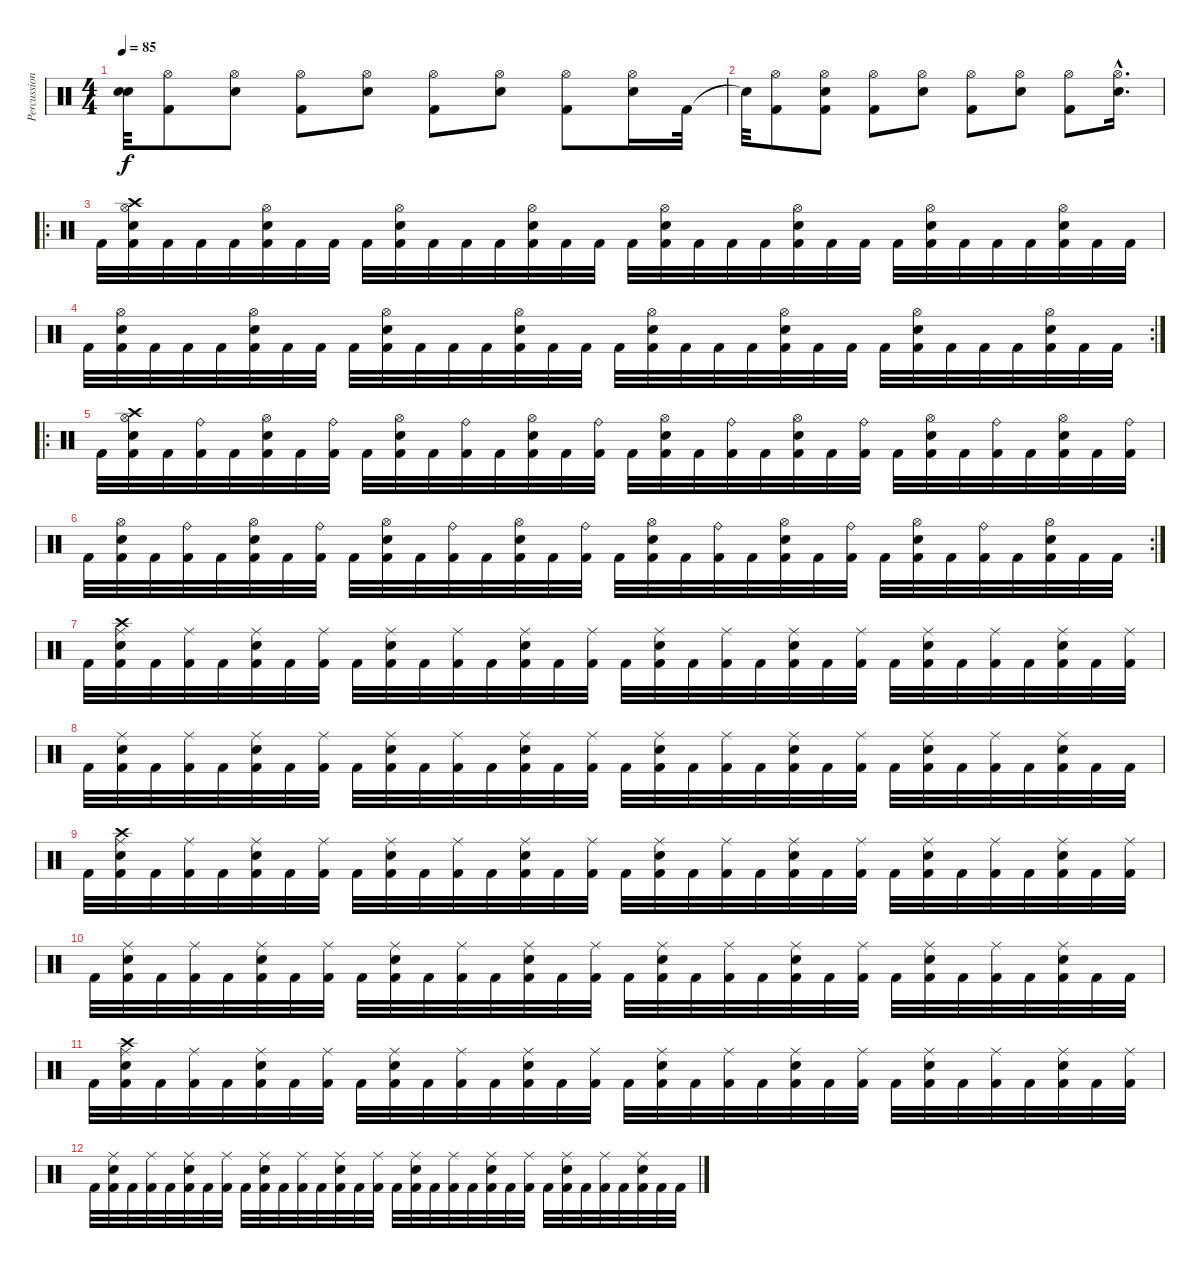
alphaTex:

\track ("Percussion" "Percussion") {instrument percussion}
\staff {score}
\articulation defaults
\ts (4 4)
\tempo 85
\clef neutral
\ks c
("Snare (hit)"{t} "Snare (hit)"{t}).32{dy f} ("Kick (hit) 2" "Hi-Hat (open)").8 ("Snare (hit) 2" "Hi-Hat (open)").8 ("Kick (hit) 2" "Hi-Hat (open)").8 ("Snare (hit) 2" "Hi-Hat (open)").8 ("Kick (hit) 2" "Hi-Hat (open)").8 ("Snare (hit) 2" "Hi-Hat (open)").8 ("Kick (hit) 2" "Hi-Hat (open)").8 ("Snare (hit) 2" "Hi-Hat (open)").16 "Kick (hit) 2".32 |
"Snare (hit)"{t}.32 ("Kick (hit) 2" "Hi-Hat (open)").8 ("Kick (hit) 2" "Snare (hit) 2" "Hi-Hat (open)").8 ("Kick (hit) 2" "Hi-Hat (open)").8 ("Snare (hit) 2" "Hi-Hat (open)").8 ("Kick (hit) 2" "Hi-Hat (open)").8 ("Snare (hit) 2" "Hi-Hat (open)").8 ("Kick (hit) 2" "Hi-Hat (open)").8 ("Snare (hit) 2"{hac} "Hi-Hat (open)"{hac}).16{d} |
\ro "Kick (hit) 2".32
("Kick (hit) 2" "Snare (hit) 2" "Hi-Hat (open)" "Crash high (hit)").32 "Kick (hit) 2".32 "Kick (hit) 2".32 "Kick (hit) 2".32 ("Kick (hit) 2" "Snare (hit) 2" "Hi-Hat (open)").32 "Kick (hit) 2".32 "Kick (hit) 2".32 "Kick (hit) 2".32 ("Kick (hit) 2" "Snare (hit) 2" "Hi-Hat (open)").32 "Kick (hit) 2".32 "Kick (hit) 2".32 "Kick (hit) 2".32 ("Kick (hit) 2" "Snare (hit) 2" "Hi-Hat (open)").32 "Kick (hit) 2".32 "Kick (hit) 2".32 "Kick (hit) 2".32 ("Kick (hit) 2" "Snare (hit) 2" "Hi-Hat (open)").32 "Kick (hit) 2".32 "Kick (hit) 2".32 "Kick (hit) 2".32 ("Kick (hit) 2" "Snare (hit) 2" "Hi-Hat (open)").32 "Kick (hit) 2".32 "Kick (hit) 2".32 "Kick (hit) 2".32 ("Kick (hit) 2" "Snare (hit) 2" "Hi-Hat (open)").32 "Kick (hit) 2".32 "Kick (hit) 2".32 "Kick (hit) 2".32 ("Kick (hit) 2" "Snare (hit) 2" "Hi-Hat (open)").32 "Kick (hit) 2".32 "Kick (hit) 2".32 |
\rc 2 "Kick (hit) 2".32
("Kick (hit) 2" "Snare (hit) 2" "Hi-Hat (open)").32 "Kick (hit) 2".32 "Kick (hit) 2".32 "Kick (hit) 2".32 ("Kick (hit) 2" "Snare (hit) 2" "Hi-Hat (open)").32 "Kick (hit) 2".32 "Kick (hit) 2".32 "Kick (hit) 2".32 ("Kick (hit) 2" "Snare (hit) 2" "Hi-Hat (open)").32 "Kick (hit) 2".32 "Kick (hit) 2".32 "Kick (hit) 2".32 ("Kick (hit) 2" "Snare (hit) 2" "Hi-Hat (open)").32 "Kick (hit) 2".32 "Kick (hit) 2".32 "Kick (hit) 2".32 ("Kick (hit) 2" "Snare (hit) 2" "Hi-Hat (open)").32 "Kick (hit) 2".32 "Kick (hit) 2".32 "Kick (hit) 2".32 ("Kick (hit) 2" "Snare (hit) 2" "Hi-Hat (open)").32 "Kick (hit) 2".32 "Kick (hit) 2".32 "Kick (hit) 2".32 ("Kick (hit) 2" "Snare (hit) 2" "Hi-Hat (open)").32 "Kick (hit) 2".32 "Kick (hit) 2".32 "Kick (hit) 2".32 ("Kick (hit) 2" "Snare (hit) 2" "Hi-Hat (open)").32 "Kick (hit) 2".32 "Kick (hit) 2".32 |
\ro "Kick (hit) 2".32
("Kick (hit) 2" "Snare (hit) 2" "Hi-Hat (open)" "Crash high (hit)").32 "Kick (hit) 2".32 ("Kick (hit) 2" "Ride (bell)").32 "Kick (hit) 2".32 ("Kick (hit) 2" "Snare (hit) 2" "Hi-Hat (open)").32 "Kick (hit) 2".32 ("Kick (hit) 2" "Ride (bell)").32 "Kick (hit) 2".32 ("Kick (hit) 2" "Snare (hit) 2" "Hi-Hat (open)").32 "Kick (hit) 2".32 ("Kick (hit) 2" "Ride (bell)").32 "Kick (hit) 2".32 ("Kick (hit) 2" "Snare (hit) 2" "Hi-Hat (open)").32 "Kick (hit) 2".32 ("Kick (hit) 2" "Ride (bell)").32 "Kick (hit) 2".32 ("Kick (hit) 2" "Snare (hit) 2" "Hi-Hat (open)").32 "Kick (hit) 2".32 ("Kick (hit) 2" "Ride (bell)").32 "Kick (hit) 2".32 ("Kick (hit) 2" "Snare (hit) 2" "Hi-Hat (open)").32 "Kick (hit) 2".32 ("Kick (hit) 2" "Ride (bell)").32 "Kick (hit) 2".32 ("Kick (hit) 2" "Snare (hit) 2" "Hi-Hat (open)").32 "Kick (hit) 2".32 ("Kick (hit) 2" "Ride (bell)").32 "Kick (hit) 2".32 ("Kick (hit) 2" "Snare (hit) 2" "Hi-Hat (open)").32 "Kick (hit) 2".32 ("Kick (hit) 2" "Ride (bell)").32 |
\rc 2 "Kick (hit) 2".32
("Kick (hit) 2" "Snare (hit) 2" "Hi-Hat (open)").32 "Kick (hit) 2".32 ("Kick (hit) 2" "Ride (bell)").32 "Kick (hit) 2".32 ("Kick (hit) 2" "Snare (hit) 2" "Hi-Hat (open)").32 "Kick (hit) 2".32 ("Kick (hit) 2" "Ride (bell)").32 "Kick (hit) 2".32 ("Kick (hit) 2" "Snare (hit) 2" "Hi-Hat (open)").32 "Kick (hit) 2".32 ("Kick (hit) 2" "Ride (bell)").32 "Kick (hit) 2".32 ("Kick (hit) 2" "Snare (hit) 2" "Hi-Hat (open)").32 "Kick (hit) 2".32 ("Kick (hit) 2" "Ride (bell)").32 "Kick (hit) 2".32 ("Kick (hit) 2" "Snare (hit) 2" "Hi-Hat (open)").32 "Kick (hit) 2".32 ("Kick (hit) 2" "Ride (bell)").32 "Kick (hit) 2".32 ("Kick (hit) 2" "Snare (hit) 2" "Hi-Hat (open)").32 "Kick (hit) 2".32 ("Kick (hit) 2" "Ride (bell)").32 "Kick (hit) 2".32 ("Kick (hit) 2" "Snare (hit) 2" "Hi-Hat (open)").32 "Kick (hit) 2".32 ("Kick (hit) 2" "Ride (bell)").32 "Kick (hit) 2".32 ("Kick (hit) 2" "Snare (hit) 2" "Hi-Hat (open)").32 "Kick (hit) 2".32 "Kick (hit) 2".32 |
"Kick (hit) 2".32{volume 13} ("Kick (hit) 2" "Snare (hit) 2" "Ride (middle)" "Crash high (hit)").32 "Kick (hit) 2".32 ("Kick (hit) 2" "Ride (middle)").32 "Kick (hit) 2".32 ("Kick (hit) 2" "Snare (hit) 2" "Ride (middle)").32 "Kick (hit) 2".32 ("Kick (hit) 2" "Ride (middle)").32 "Kick (hit) 2".32 ("Kick (hit) 2" "Snare (hit) 2" "Ride (middle)").32 "Kick (hit) 2".32 ("Kick (hit) 2" "Ride (middle)").32 "Kick (hit) 2".32 ("Kick (hit) 2" "Snare (hit) 2" "Ride (middle)").32 "Kick (hit) 2".32 ("Kick (hit) 2" "Ride (middle)").32 "Kick (hit) 2".32 ("Kick (hit) 2" "Snare (hit) 2" "Ride (middle)").32 "Kick (hit) 2".32 ("Kick (hit) 2" "Ride (middle)").32 "Kick (hit) 2".32 ("Kick (hit) 2" "Snare (hit) 2" "Ride (middle)").32 "Kick (hit) 2".32 ("Kick (hit) 2" "Ride (middle)").32 "Kick (hit) 2".32 ("Kick (hit) 2" "Snare (hit) 2" "Ride (middle)").32 "Kick (hit) 2".32 ("Kick (hit) 2" "Ride (middle)").32 "Kick (hit) 2".32 ("Kick (hit) 2" "Snare (hit) 2" "Ride (middle)").32 "Kick (hit) 2".32 ("Kick (hit) 2" "Ride (middle)").32 |
"Kick (hit) 2".32 ("Kick (hit) 2" "Snare (hit) 2" "Ride (middle)").32 "Kick (hit) 2".32 ("Kick (hit) 2" "Ride (middle)").32 "Kick (hit) 2".32 ("Kick (hit) 2" "Snare (hit) 2" "Ride (middle)").32 "Kick (hit) 2".32 ("Kick (hit) 2" "Ride (middle)").32 "Kick (hit) 2".32 ("Kick (hit) 2" "Snare (hit) 2" "Ride (middle)").32 "Kick (hit) 2".32 ("Kick (hit) 2" "Ride (middle)").32 "Kick (hit) 2".32 ("Kick (hit) 2" "Snare (hit) 2" "Ride (middle)").32 "Kick (hit) 2".32 ("Kick (hit) 2" "Ride (middle)").32 "Kick (hit) 2".32 ("Kick (hit) 2" "Snare (hit) 2" "Ride (middle)").32 "Kick (hit) 2".32 ("Kick (hit) 2" "Ride (middle)").32 "Kick (hit) 2".32 ("Kick (hit) 2" "Snare (hit) 2" "Ride (middle)").32 "Kick (hit) 2".32 ("Kick (hit) 2" "Ride (middle)").32 "Kick (hit) 2".32 ("Kick (hit) 2" "Snare (hit) 2" "Ride (middle)").32 "Kick (hit) 2".32 ("Kick (hit) 2" "Ride (middle)").32 "Kick (hit) 2".32 ("Kick (hit) 2" "Snare (hit) 2" "Ride (middle)").32 "Kick (hit) 2".32 "Kick (hit) 2".32 |
"Kick (hit) 2".32{volume 9} ("Kick (hit) 2" "Snare (hit) 2" "Ride (middle)" "Crash high (hit)").32 "Kick (hit) 2".32 ("Kick (hit) 2" "Ride (middle)").32 "Kick (hit) 2".32 ("Kick (hit) 2" "Snare (hit) 2" "Ride (middle)").32 "Kick (hit) 2".32 ("Kick (hit) 2" "Ride (middle)").32 "Kick (hit) 2".32 ("Kick (hit) 2" "Snare (hit) 2" "Ride (middle)").32 "Kick (hit) 2".32 ("Kick (hit) 2" "Ride (middle)").32 "Kick (hit) 2".32 ("Kick (hit) 2" "Snare (hit) 2" "Ride (middle)").32 "Kick (hit) 2".32 ("Kick (hit) 2" "Ride (middle)").32 "Kick (hit) 2".32 ("Kick (hit) 2" "Snare (hit) 2" "Ride (middle)").32 "Kick (hit) 2".32 ("Kick (hit) 2" "Ride (middle)").32 "Kick (hit) 2".32 ("Kick (hit) 2" "Snare (hit) 2" "Ride (middle)").32 "Kick (hit) 2".32 ("Kick (hit) 2" "Ride (middle)").32 "Kick (hit) 2".32 ("Kick (hit) 2" "Snare (hit) 2" "Ride (middle)").32 "Kick (hit) 2".32 ("Kick (hit) 2" "Ride (middle)").32 "Kick (hit) 2".32 ("Kick (hit) 2" "Snare (hit) 2" "Ride (middle)").32 "Kick (hit) 2".32 ("Kick (hit) 2" "Ride (middle)").32 |
"Kick (hit) 2".32 ("Kick (hit) 2" "Snare (hit) 2" "Ride (middle)").32 "Kick (hit) 2".32 ("Kick (hit) 2" "Ride (middle)").32 "Kick (hit) 2".32 ("Kick (hit) 2" "Snare (hit) 2" "Ride (middle)").32 "Kick (hit) 2".32 ("Kick (hit) 2" "Ride (middle)").32 "Kick (hit) 2".32 ("Kick (hit) 2" "Snare (hit) 2" "Ride (middle)").32 "Kick (hit) 2".32 ("Kick (hit) 2" "Ride (middle)").32 "Kick (hit) 2".32 ("Kick (hit) 2" "Snare (hit) 2" "Ride (middle)").32 "Kick (hit) 2".32 ("Kick (hit) 2" "Ride (middle)").32 "Kick (hit) 2".32 ("Kick (hit) 2" "Snare (hit) 2" "Ride (middle)").32 "Kick (hit) 2".32 ("Kick (hit) 2" "Ride (middle)").32 "Kick (hit) 2".32 ("Kick (hit) 2" "Snare (hit) 2" "Ride (middle)").32 "Kick (hit) 2".32 ("Kick (hit) 2" "Ride (middle)").32 "Kick (hit) 2".32 ("Kick (hit) 2" "Snare (hit) 2" "Ride (middle)").32 "Kick (hit) 2".32 ("Kick (hit) 2" "Ride (middle)").32 "Kick (hit) 2".32 ("Kick (hit) 2" "Snare (hit) 2" "Ride (middle)").32 "Kick (hit) 2".32 "Kick (hit) 2".32 |
"Kick (hit) 2".32{volume 0} ("Kick (hit) 2" "Snare (hit) 2" "Ride (middle)" "Crash high (hit)").32 "Kick (hit) 2".32 ("Kick (hit) 2" "Ride (middle)").32 "Kick (hit) 2".32 ("Kick (hit) 2" "Snare (hit) 2" "Ride (middle)").32 "Kick (hit) 2".32 ("Kick (hit) 2" "Ride (middle)").32 "Kick (hit) 2".32 ("Kick (hit) 2" "Snare (hit) 2" "Ride (middle)").32 "Kick (hit) 2".32 ("Kick (hit) 2" "Ride (middle)").32 "Kick (hit) 2".32 ("Kick (hit) 2" "Snare (hit) 2" "Ride (middle)").32 "Kick (hit) 2".32 ("Kick (hit) 2" "Ride (middle)").32 "Kick (hit) 2".32 ("Kick (hit) 2" "Snare (hit) 2" "Ride (middle)").32 "Kick (hit) 2".32 ("Kick (hit) 2" "Ride (middle)").32 "Kick (hit) 2".32 ("Kick (hit) 2" "Snare (hit) 2" "Ride (middle)").32 "Kick (hit) 2".32 ("Kick (hit) 2" "Ride (middle)").32 "Kick (hit) 2".32 ("Kick (hit) 2" "Snare (hit) 2" "Ride (middle)").32 "Kick (hit) 2".32 ("Kick (hit) 2" "Ride (middle)").32 "Kick (hit) 2".32 ("Kick (hit) 2" "Snare (hit) 2" "Ride (middle)").32 "Kick (hit) 2".32 ("Kick (hit) 2" "Ride (middle)").32 |
"Kick (hit) 2".32 ("Kick (hit) 2" "Snare (hit) 2" "Ride (middle)").32 "Kick (hit) 2".32 ("Kick (hit) 2" "Ride (middle)").32 "Kick (hit) 2".32 ("Kick (hit) 2" "Snare (hit) 2" "Ride (middle)").32 "Kick (hit) 2".32 ("Kick (hit) 2" "Ride (middle)").32 "Kick (hit) 2".32 ("Kick (hit) 2" "Snare (hit) 2" "Ride (middle)").32 "Kick (hit) 2".32 ("Kick (hit) 2" "Ride (middle)").32 "Kick (hit) 2".32 ("Kick (hit) 2" "Snare (hit) 2" "Ride (middle)").32 "Kick (hit) 2".32 ("Kick (hit) 2" "Ride (middle)").32 "Kick (hit) 2".32 ("Kick (hit) 2" "Snare (hit) 2" "Ride (middle)").32 "Kick (hit) 2".32 ("Kick (hit) 2" "Ride (middle)").32 "Kick (hit) 2".32 ("Kick (hit) 2" "Snare (hit) 2" "Ride (middle)").32 "Kick (hit) 2".32 ("Kick (hit) 2" "Ride (middle)").32 "Kick (hit) 2".32 ("Kick (hit) 2" "Snare (hit) 2" "Ride (middle)").32 "Kick (hit) 2".32 ("Kick (hit) 2" "Ride (middle)").32 "Kick (hit) 2".32 ("Kick (hit) 2" "Snare (hit) 2" "Ride (middle)").32 "Kick (hit) 2".32 "Kick (hit) 2".32
